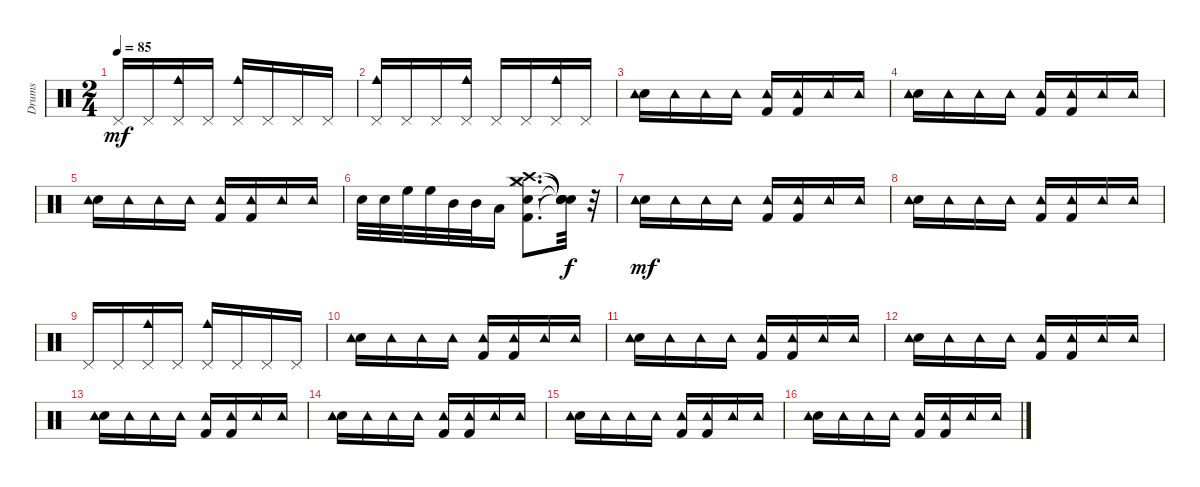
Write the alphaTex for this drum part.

\track ("Drums" "Drums") {instrument percussion}
\staff {score}
\articulation defaults
\ts (2 4)
\tempo 85
\clef neutral
\ks c "Pedal Hi-Hat (hit)".16{dy mf} "Pedal Hi-Hat (hit)".16
("Pedal Hi-Hat (hit)" "Cowbell medium (hit)").16 "Pedal Hi-Hat (hit)".16 ("Pedal Hi-Hat (hit)" "Cowbell medium (hit)").16 "Pedal Hi-Hat (hit)".16 "Pedal Hi-Hat (hit)".16 "Pedal Hi-Hat (hit)".16 |
("Pedal Hi-Hat (hit)" "Cowbell medium (hit)").16 "Pedal Hi-Hat (hit)".16 "Pedal Hi-Hat (hit)".16 ("Pedal Hi-Hat (hit)" "Cowbell medium (hit)").16 "Pedal Hi-Hat (hit)".16 "Pedal Hi-Hat (hit)".16 ("Pedal Hi-Hat (hit)" "Cowbell medium (hit)").16 "Pedal Hi-Hat (hit)".16 |
("Snare (hit) 2" "Tambourine (hit)").16 "Tambourine (hit)".16 "Tambourine (hit)".16 "Tambourine (hit)".16 ("Kick (hit) 2" "Tambourine (hit)").16 ("Tambourine (hit)" "Kick (hit) 2").16 "Tambourine (hit)".16 "Tambourine (hit)".16 |
("Snare (hit) 2" "Tambourine (hit)").16 "Tambourine (hit)".16 "Tambourine (hit)".16 "Tambourine (hit)".16 ("Tambourine (hit)" "Kick (hit) 2").16 ("Kick (hit) 2" "Tambourine (hit)").16 "Tambourine (hit)".16 "Tambourine (hit)".16 |
("Snare (hit) 2" "Tambourine (hit)").16 "Tambourine (hit)".16 "Tambourine (hit)".16 "Tambourine (hit)".16 ("Kick (hit) 2" "Tambourine (hit)").16 ("Tambourine (hit)" "Kick (hit) 2").16 "Tambourine (hit)".16 "Tambourine (hit)".16 |
"Snare (hit) 2".32 "Snare (hit) 2".32 "High Floor Tom (hit)".32 "High Floor Tom (hit)".32 "Mid Tom (hit)".32 "Mid Tom (hit)".32 "Low Floor Tom (hit)".16 ("Hi-Hat (closed)" "Crash medium (hit)" "Snare (hit) 2" "Kick (hit) 2" "Crash high (hit)").8{d} ("Snare (hit)"{t} "Snare (hit)"{t} "Snare (hit)"{t} "Snare (hit)"{t} "Snare (hit)"{t}).32{dy f} r.32 |
("Snare (hit) 2" "Tambourine (hit)").16{dy mf} "Tambourine (hit)".16 "Tambourine (hit)".16 "Tambourine (hit)".16 ("Kick (hit) 2" "Tambourine (hit)").16 ("Tambourine (hit)" "Kick (hit) 2").16 "Tambourine (hit)".16 "Tambourine (hit)".16 |
("Snare (hit) 2" "Tambourine (hit)").16 "Tambourine (hit)".16 "Tambourine (hit)".16 "Tambourine (hit)".16 ("Tambourine (hit)" "Kick (hit) 2").16 ("Kick (hit) 2" "Tambourine (hit)").16 "Tambourine (hit)".16 "Tambourine (hit)".16 |
"Pedal Hi-Hat (hit)".16 "Pedal Hi-Hat (hit)".16 ("Pedal Hi-Hat (hit)" "Cowbell medium (hit)").16 "Pedal Hi-Hat (hit)".16 ("Pedal Hi-Hat (hit)" "Cowbell medium (hit)").16 "Pedal Hi-Hat (hit)".16 "Pedal Hi-Hat (hit)".16 "Pedal Hi-Hat (hit)".16 |
("Snare (hit) 2" "Tambourine (hit)").16 "Tambourine (hit)".16 "Tambourine (hit)".16 "Tambourine (hit)".16 ("Kick (hit) 2" "Tambourine (hit)").16 ("Tambourine (hit)" "Kick (hit) 2").16 "Tambourine (hit)".16 "Tambourine (hit)".16 |
("Snare (hit) 2" "Tambourine (hit)").16 "Tambourine (hit)".16 "Tambourine (hit)".16 "Tambourine (hit)".16 ("Tambourine (hit)" "Kick (hit) 2").16 ("Kick (hit) 2" "Tambourine (hit)").16 "Tambourine (hit)".16 "Tambourine (hit)".16 |
("Snare (hit) 2" "Tambourine (hit)").16 "Tambourine (hit)".16 "Tambourine (hit)".16 "Tambourine (hit)".16 ("Kick (hit) 2" "Tambourine (hit)").16 ("Tambourine (hit)" "Kick (hit) 2").16 "Tambourine (hit)".16 "Tambourine (hit)".16 |
("Snare (hit) 2" "Tambourine (hit)").16 "Tambourine (hit)".16 "Tambourine (hit)".16 "Tambourine (hit)".16 ("Tambourine (hit)" "Kick (hit) 2").16 ("Kick (hit) 2" "Tambourine (hit)").16 "Tambourine (hit)".16 "Tambourine (hit)".16 |
("Snare (hit) 2" "Tambourine (hit)").16 "Tambourine (hit)".16 "Tambourine (hit)".16 "Tambourine (hit)".16 ("Kick (hit) 2" "Tambourine (hit)").16 ("Tambourine (hit)" "Kick (hit) 2").16 "Tambourine (hit)".16 "Tambourine (hit)".16 |
("Snare (hit) 2" "Tambourine (hit)").16 "Tambourine (hit)".16 "Tambourine (hit)".16 "Tambourine (hit)".16 ("Tambourine (hit)" "Kick (hit) 2").16 ("Kick (hit) 2" "Tambourine (hit)").16 "Tambourine (hit)".16 "Tambourine (hit)".16 |
("Snare (hit) 2" "Tambourine (hit)").16 "Tambourine (hit)".16 "Tambourine (hit)".16 "Tambourine (hit)".16 ("Kick (hit) 2" "Tambourine (hit)").16 ("Tambourine (hit)" "Kick (hit) 2").16 "Tambourine (hit)".16 "Tambourine (hit)".16
